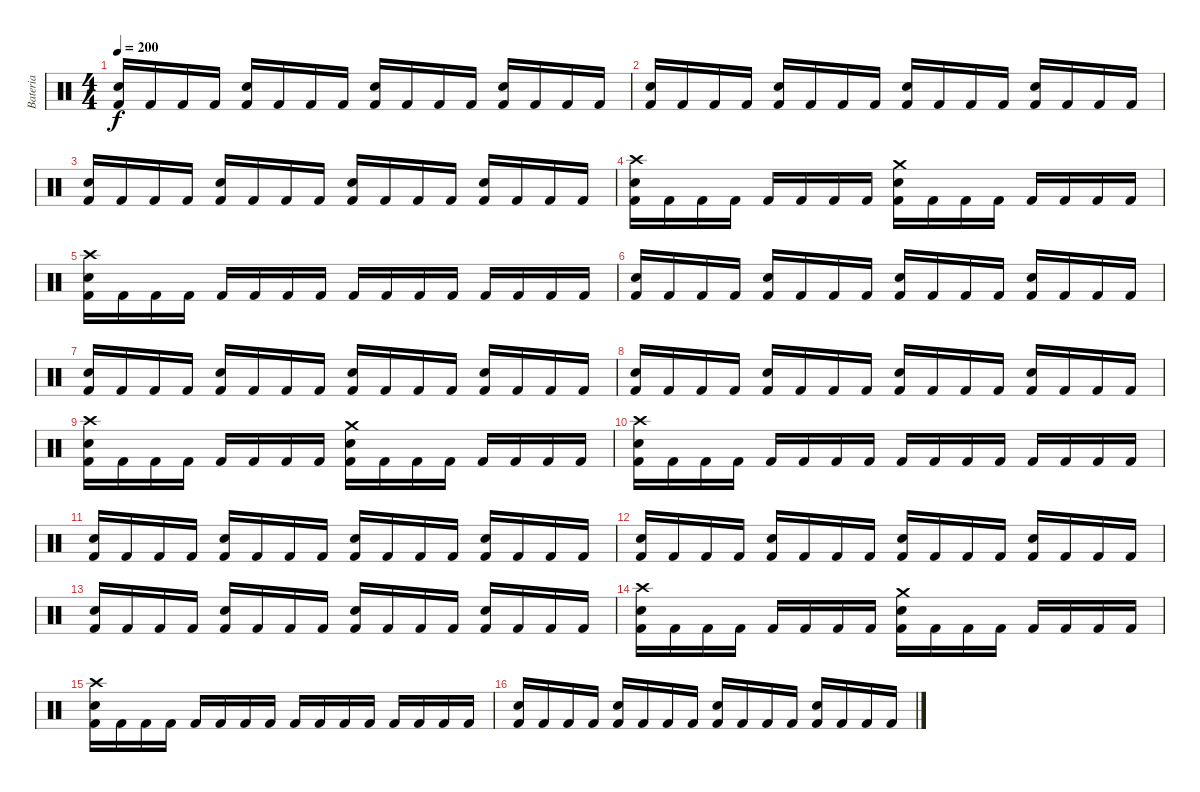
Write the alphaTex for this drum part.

\track ("Bateria" "Bateria") {instrument percussion}
\staff {score}
\articulation defaults
\ts (4 4)
\tempo 200
\clef neutral
\ks c
("Electric Snare (hit)" "Kick (hit) 2").16{dy f} "Kick (hit) 2".16 "Kick (hit) 2".16 "Kick (hit) 2".16 ("Electric Snare (hit)" "Kick (hit) 2").16 "Kick (hit) 2".16 "Kick (hit) 2".16 "Kick (hit) 2".16 ("Electric Snare (hit)" "Kick (hit) 2").16 "Kick (hit) 2".16 "Kick (hit) 2".16 "Kick (hit) 2".16 ("Electric Snare (hit)" "Kick (hit) 2").16 "Kick (hit) 2".16 "Kick (hit) 2".16 "Kick (hit) 2".16 |
("Electric Snare (hit)" "Kick (hit) 2").16 "Kick (hit) 2".16 "Kick (hit) 2".16 "Kick (hit) 2".16 ("Electric Snare (hit)" "Kick (hit) 2").16 "Kick (hit) 2".16 "Kick (hit) 2".16 "Kick (hit) 2".16 ("Electric Snare (hit)" "Kick (hit) 2").16 "Kick (hit) 2".16 "Kick (hit) 2".16 "Kick (hit) 2".16 ("Electric Snare (hit)" "Kick (hit) 2").16 "Kick (hit) 2".16 "Kick (hit) 2".16 "Kick (hit) 2".16 |
("Electric Snare (hit)" "Kick (hit) 2").16 "Kick (hit) 2".16 "Kick (hit) 2".16 "Kick (hit) 2".16 ("Electric Snare (hit)" "Kick (hit) 2").16 "Kick (hit) 2".16 "Kick (hit) 2".16 "Kick (hit) 2".16 ("Electric Snare (hit)" "Kick (hit) 2").16 "Kick (hit) 2".16 "Kick (hit) 2".16 "Kick (hit) 2".16 ("Electric Snare (hit)" "Kick (hit) 2").16 "Kick (hit) 2".16 "Kick (hit) 2".16 "Kick (hit) 2".16 |
("Crash high (hit)" "Electric Snare (hit)" "Kick (hit) 2").16 "Kick (hit) 2".16 "Kick (hit) 2".16 "Kick (hit) 2".16 "Kick (hit) 2".16 "Kick (hit) 2".16 "Kick (hit) 2".16 "Kick (hit) 2".16 ("Crash medium (hit)" "Electric Snare (hit)" "Kick (hit) 2").16 "Kick (hit) 2".16 "Kick (hit) 2".16 "Kick (hit) 2".16 "Kick (hit) 2".16 "Kick (hit) 2".16 "Kick (hit) 2".16 "Kick (hit) 2".16 |
("Crash high (hit)" "Electric Snare (hit)" "Kick (hit) 2").16 "Kick (hit) 2".16 "Kick (hit) 2".16 "Kick (hit) 2".16 "Kick (hit) 2".16 "Kick (hit) 2".16 "Kick (hit) 2".16 "Kick (hit) 2".16 "Kick (hit) 2".16 "Kick (hit) 2".16 "Kick (hit) 2".16 "Kick (hit) 2".16 "Kick (hit) 2".16 "Kick (hit) 2".16 "Kick (hit) 2".16 "Kick (hit) 2".16 |
("Electric Snare (hit)" "Kick (hit) 2").16 "Kick (hit) 2".16 "Kick (hit) 2".16 "Kick (hit) 2".16 ("Electric Snare (hit)" "Kick (hit) 2").16 "Kick (hit) 2".16 "Kick (hit) 2".16 "Kick (hit) 2".16 ("Electric Snare (hit)" "Kick (hit) 2").16 "Kick (hit) 2".16 "Kick (hit) 2".16 "Kick (hit) 2".16 ("Electric Snare (hit)" "Kick (hit) 2").16 "Kick (hit) 2".16 "Kick (hit) 2".16 "Kick (hit) 2".16 |
("Electric Snare (hit)" "Kick (hit) 2").16 "Kick (hit) 2".16 "Kick (hit) 2".16 "Kick (hit) 2".16 ("Electric Snare (hit)" "Kick (hit) 2").16 "Kick (hit) 2".16 "Kick (hit) 2".16 "Kick (hit) 2".16 ("Electric Snare (hit)" "Kick (hit) 2").16 "Kick (hit) 2".16 "Kick (hit) 2".16 "Kick (hit) 2".16 ("Electric Snare (hit)" "Kick (hit) 2").16 "Kick (hit) 2".16 "Kick (hit) 2".16 "Kick (hit) 2".16 |
("Electric Snare (hit)" "Kick (hit) 2").16 "Kick (hit) 2".16 "Kick (hit) 2".16 "Kick (hit) 2".16 ("Electric Snare (hit)" "Kick (hit) 2").16 "Kick (hit) 2".16 "Kick (hit) 2".16 "Kick (hit) 2".16 ("Electric Snare (hit)" "Kick (hit) 2").16 "Kick (hit) 2".16 "Kick (hit) 2".16 "Kick (hit) 2".16 ("Electric Snare (hit)" "Kick (hit) 2").16 "Kick (hit) 2".16 "Kick (hit) 2".16 "Kick (hit) 2".16 |
("Crash high (hit)" "Electric Snare (hit)" "Kick (hit) 2").16 "Kick (hit) 2".16 "Kick (hit) 2".16 "Kick (hit) 2".16 "Kick (hit) 2".16 "Kick (hit) 2".16 "Kick (hit) 2".16 "Kick (hit) 2".16 ("Crash medium (hit)" "Electric Snare (hit)" "Kick (hit) 2").16 "Kick (hit) 2".16 "Kick (hit) 2".16 "Kick (hit) 2".16 "Kick (hit) 2".16 "Kick (hit) 2".16 "Kick (hit) 2".16 "Kick (hit) 2".16 |
("Crash high (hit)" "Electric Snare (hit)" "Kick (hit) 2").16 "Kick (hit) 2".16 "Kick (hit) 2".16 "Kick (hit) 2".16 "Kick (hit) 2".16 "Kick (hit) 2".16 "Kick (hit) 2".16 "Kick (hit) 2".16 "Kick (hit) 2".16 "Kick (hit) 2".16 "Kick (hit) 2".16 "Kick (hit) 2".16 "Kick (hit) 2".16 "Kick (hit) 2".16 "Kick (hit) 2".16 "Kick (hit) 2".16 |
("Electric Snare (hit)" "Kick (hit) 2").16 "Kick (hit) 2".16 "Kick (hit) 2".16 "Kick (hit) 2".16 ("Electric Snare (hit)" "Kick (hit) 2").16 "Kick (hit) 2".16 "Kick (hit) 2".16 "Kick (hit) 2".16 ("Electric Snare (hit)" "Kick (hit) 2").16 "Kick (hit) 2".16 "Kick (hit) 2".16 "Kick (hit) 2".16 ("Electric Snare (hit)" "Kick (hit) 2").16 "Kick (hit) 2".16 "Kick (hit) 2".16 "Kick (hit) 2".16 |
("Electric Snare (hit)" "Kick (hit) 2").16 "Kick (hit) 2".16 "Kick (hit) 2".16 "Kick (hit) 2".16 ("Electric Snare (hit)" "Kick (hit) 2").16 "Kick (hit) 2".16 "Kick (hit) 2".16 "Kick (hit) 2".16 ("Electric Snare (hit)" "Kick (hit) 2").16 "Kick (hit) 2".16 "Kick (hit) 2".16 "Kick (hit) 2".16 ("Electric Snare (hit)" "Kick (hit) 2").16 "Kick (hit) 2".16 "Kick (hit) 2".16 "Kick (hit) 2".16 |
("Electric Snare (hit)" "Kick (hit) 2").16 "Kick (hit) 2".16 "Kick (hit) 2".16 "Kick (hit) 2".16 ("Electric Snare (hit)" "Kick (hit) 2").16 "Kick (hit) 2".16 "Kick (hit) 2".16 "Kick (hit) 2".16 ("Electric Snare (hit)" "Kick (hit) 2").16 "Kick (hit) 2".16 "Kick (hit) 2".16 "Kick (hit) 2".16 ("Electric Snare (hit)" "Kick (hit) 2").16 "Kick (hit) 2".16 "Kick (hit) 2".16 "Kick (hit) 2".16 |
("Crash high (hit)" "Electric Snare (hit)" "Kick (hit) 2").16 "Kick (hit) 2".16 "Kick (hit) 2".16 "Kick (hit) 2".16 "Kick (hit) 2".16 "Kick (hit) 2".16 "Kick (hit) 2".16 "Kick (hit) 2".16 ("Crash medium (hit)" "Electric Snare (hit)" "Kick (hit) 2").16 "Kick (hit) 2".16 "Kick (hit) 2".16 "Kick (hit) 2".16 "Kick (hit) 2".16 "Kick (hit) 2".16 "Kick (hit) 2".16 "Kick (hit) 2".16 |
("Crash high (hit)" "Electric Snare (hit)" "Kick (hit) 2").16 "Kick (hit) 2".16 "Kick (hit) 2".16 "Kick (hit) 2".16 "Kick (hit) 2".16 "Kick (hit) 2".16 "Kick (hit) 2".16 "Kick (hit) 2".16 "Kick (hit) 2".16 "Kick (hit) 2".16 "Kick (hit) 2".16 "Kick (hit) 2".16 "Kick (hit) 2".16 "Kick (hit) 2".16 "Kick (hit) 2".16 "Kick (hit) 2".16 |
("Electric Snare (hit)" "Kick (hit) 2").16 "Kick (hit) 2".16 "Kick (hit) 2".16 "Kick (hit) 2".16 ("Electric Snare (hit)" "Kick (hit) 2").16 "Kick (hit) 2".16 "Kick (hit) 2".16 "Kick (hit) 2".16 ("Electric Snare (hit)" "Kick (hit) 2").16 "Kick (hit) 2".16 "Kick (hit) 2".16 "Kick (hit) 2".16 ("Electric Snare (hit)" "Kick (hit) 2").16 "Kick (hit) 2".16 "Kick (hit) 2".16 "Kick (hit) 2".16
